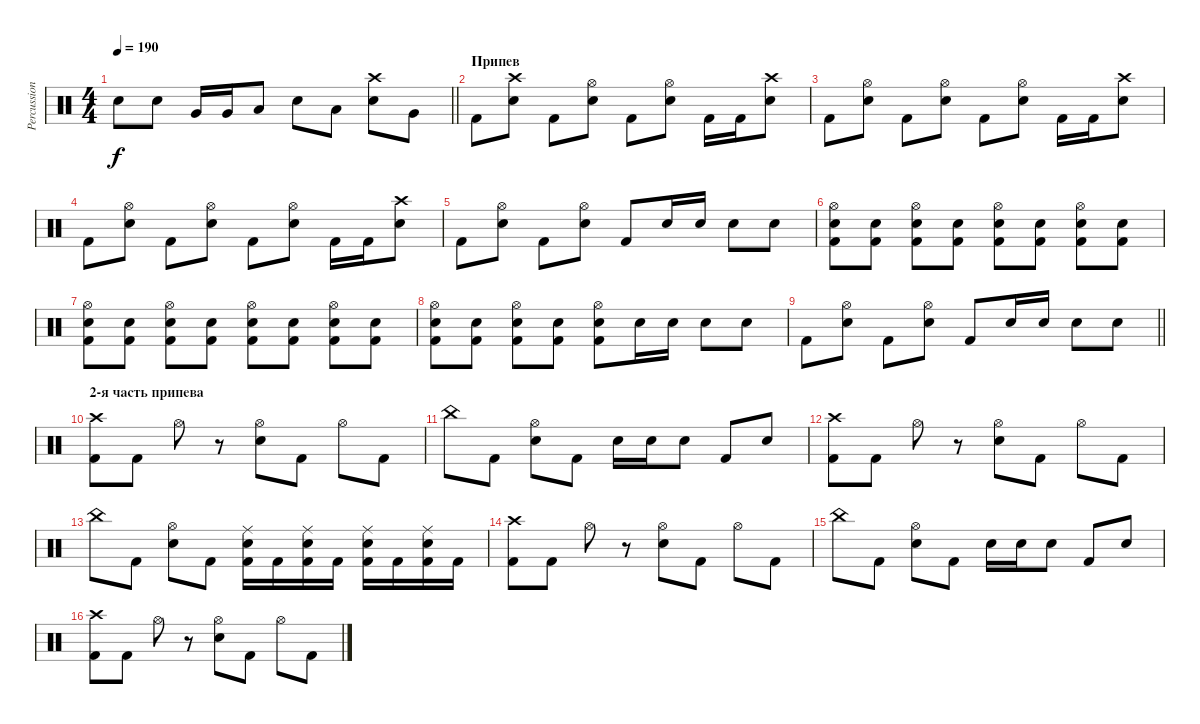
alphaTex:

\track ("Percussions" "Percussion") {instrument percussion}
\staff {score}
\articulation defaults
\ts (4 4)
\tempo 190
\clef neutral
\barLineRight lightlight
\ks c "Electric Snare (hit)".8{dy f} "Electric Snare (hit)".8 "Very Low Tom (hit)".16 "Very Low Tom (hit)".16 "Low Floor Tom (hit)".8 "Electric Snare (hit)".8 "Low Tom (hit)".8
("Electric Snare (hit)" "Crash high (hit)").8 "Very Low Tom (hit)".8 |
\section ("" "Припев")
"Kick (hit) 2".8 ("Crash high (hit)" "Electric Snare (hit)").8 "Kick (hit) 2".8 ("Hi-Hat (open)" "Electric Snare (hit)").8 "Kick (hit) 2".8 ("Hi-Hat (open)" "Electric Snare (hit)").8 "Kick (hit) 2".16 "Kick (hit) 2".16 ("Crash high (hit)" "Electric Snare (hit)").8 |
"Kick (hit) 2".8 ("Hi-Hat (open)" "Electric Snare (hit)").8 "Kick (hit) 2".8 ("Hi-Hat (open)" "Electric Snare (hit)").8 "Kick (hit) 2".8 ("Electric Snare (hit)" "Hi-Hat (open)").8 "Kick (hit) 2".16 "Kick (hit) 2".16 ("Electric Snare (hit)" "Crash high (hit)").8 |
"Kick (hit) 2".8 ("Hi-Hat (open)" "Electric Snare (hit)").8 "Kick (hit) 2".8 ("Hi-Hat (open)" "Electric Snare (hit)").8 "Kick (hit) 2".8 ("Hi-Hat (open)" "Electric Snare (hit)").8 "Kick (hit) 2".16 "Kick (hit) 2".16 ("Crash high (hit)" "Electric Snare (hit)").8 |
"Kick (hit) 2".8 ("Hi-Hat (open)" "Electric Snare (hit)").8 "Kick (hit) 2".8 ("Hi-Hat (open)" "Electric Snare (hit)").8 "Kick (hit) 2".8 "Electric Snare (hit)".16 "Electric Snare (hit)".16 "Electric Snare (hit)".8 "Electric Snare (hit)".8 |
("Kick (hit) 2" "Electric Snare (hit)" "Hi-Hat (open)").8 ("Kick (hit) 2" "Electric Snare (hit)").8 ("Kick (hit) 2" "Electric Snare (hit)" "Hi-Hat (open)").8 ("Kick (hit) 2" "Electric Snare (hit)").8 ("Kick (hit) 2" "Electric Snare (hit)" "Hi-Hat (open)").8 ("Kick (hit) 2" "Electric Snare (hit)").8 ("Kick (hit) 2" "Electric Snare (hit)" "Hi-Hat (open)").8 ("Kick (hit) 2" "Electric Snare (hit)").8 |
("Kick (hit) 2" "Electric Snare (hit)" "Hi-Hat (open)").8 ("Kick (hit) 2" "Electric Snare (hit)").8 ("Kick (hit) 2" "Electric Snare (hit)" "Hi-Hat (open)").8 ("Kick (hit) 2" "Electric Snare (hit)").8 ("Kick (hit) 2" "Electric Snare (hit)" "Hi-Hat (open)").8 ("Kick (hit) 2" "Electric Snare (hit)").8 ("Kick (hit) 2" "Electric Snare (hit)" "Hi-Hat (open)").8 ("Kick (hit) 2" "Electric Snare (hit)").8 |
("Kick (hit) 2" "Electric Snare (hit)" "Hi-Hat (open)").8 ("Kick (hit) 2" "Electric Snare (hit)").8 ("Kick (hit) 2" "Electric Snare (hit)" "Hi-Hat (open)").8 ("Kick (hit) 2" "Electric Snare (hit)").8 ("Kick (hit) 2" "Electric Snare (hit)" "Hi-Hat (open)").8 "Electric Snare (hit)".16 "Electric Snare (hit)".16 "Electric Snare (hit)".8 "Electric Snare (hit)".8 |
\barLineRight lightlight "Kick (hit) 2".8
("Hi-Hat (open)" "Electric Snare (hit)").8 "Kick (hit) 2".8 ("Hi-Hat (open)" "Electric Snare (hit)").8 "Kick (hit) 2".8 "Electric Snare (hit)".16 "Electric Snare (hit)".16 "Electric Snare (hit)".8 "Electric Snare (hit)".8 |
\section ("" "2-я часть припева")
("Kick (hit) 2" "Crash high (hit)").8 "Kick (hit) 2".8 "Hi-Hat (open)".8 r.8 ("Electric Snare (hit)" "Hi-Hat (open)").8 "Kick (hit) 2".8 "Hi-Hat (open)".8 "Kick (hit) 2".8 |
"China (hit)".8 "Kick (hit) 2".8 ("Electric Snare (hit)" "Hi-Hat (open)").8 "Kick (hit) 2".8 "Electric Snare (hit)".16 "Electric Snare (hit)".16 "Electric Snare (hit)".8 "Kick (hit) 2".8 "Electric Snare (hit)".8 |
("Kick (hit) 2" "Crash high (hit)").8 "Kick (hit) 2".8 "Hi-Hat (open)".8 r.8 ("Electric Snare (hit)" "Hi-Hat (open)").8 "Kick (hit) 2".8 "Hi-Hat (open)".8 "Kick (hit) 2".8 |
"China (hit)".8 "Kick (hit) 2".8 ("Electric Snare (hit)" "Hi-Hat (open)").8 "Kick (hit) 2".8 ("Kick (hit) 2" "Electric Snare (hit)" "Ride (middle)").16 "Kick (hit) 2".16 ("Kick (hit) 2" "Electric Snare (hit)" "Ride (middle)").16 "Kick (hit) 2".16 ("Kick (hit) 2" "Electric Snare (hit)" "Ride (middle)").16 "Kick (hit) 2".16 ("Kick (hit) 2" "Electric Snare (hit)" "Ride (middle)").16 "Kick (hit) 2".16 |
("Kick (hit) 2" "Crash high (hit)").8 "Kick (hit) 2".8 "Hi-Hat (open)".8 r.8 ("Electric Snare (hit)" "Hi-Hat (open)").8 "Kick (hit) 2".8 "Hi-Hat (open)".8 "Kick (hit) 2".8 |
"China (hit)".8 "Kick (hit) 2".8 ("Electric Snare (hit)" "Hi-Hat (open)").8 "Kick (hit) 2".8 "Electric Snare (hit)".16 "Electric Snare (hit)".16 "Electric Snare (hit)".8 "Kick (hit) 2".8 "Electric Snare (hit)".8 |
("Kick (hit) 2" "Crash high (hit)").8 "Kick (hit) 2".8 "Hi-Hat (open)".8 r.8 ("Electric Snare (hit)" "Hi-Hat (open)").8 "Kick (hit) 2".8 "Hi-Hat (open)".8 "Kick (hit) 2".8
